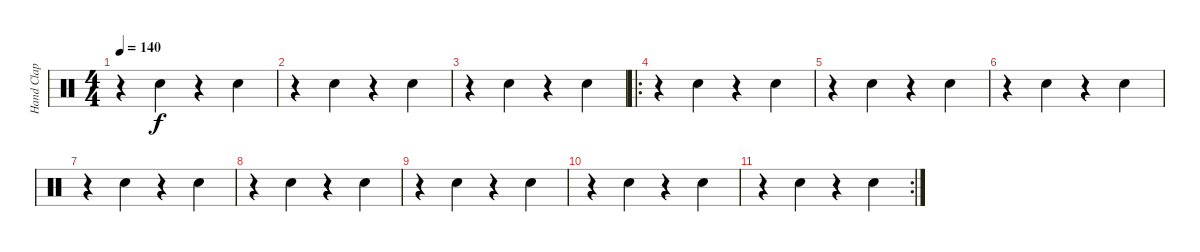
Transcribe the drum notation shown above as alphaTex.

\track ("Hand Clap" "Hand Clap") {instrument percussion}
\staff {score}
\articulation defaults
\ts (4 4)
\tempo 140
\clef neutral
\ks c
r.4{dy f} "Hand Clap (hit)".4 r.4 "Hand Clap (hit)".4 |
r.4 "Hand Clap (hit)".4 r.4 "Hand Clap (hit)".4 |
r.4 "Hand Clap (hit)".4 r.4 "Hand Clap (hit)".4 |
\ro
r.4 "Hand Clap (hit)".4 r.4 "Hand Clap (hit)".4 |
r.4 "Hand Clap (hit)".4 r.4 "Hand Clap (hit)".4 |
r.4 "Hand Clap (hit)".4 r.4 "Hand Clap (hit)".4 |
r.4 "Hand Clap (hit)".4 r.4 "Hand Clap (hit)".4 |
r.4 "Hand Clap (hit)".4 r.4 "Hand Clap (hit)".4 |
r.4 "Hand Clap (hit)".4 r.4 "Hand Clap (hit)".4 |
r.4 "Hand Clap (hit)".4 r.4 "Hand Clap (hit)".4 |
\rc 2
r.4 "Hand Clap (hit)".4 r.4 "Hand Clap (hit)".4
